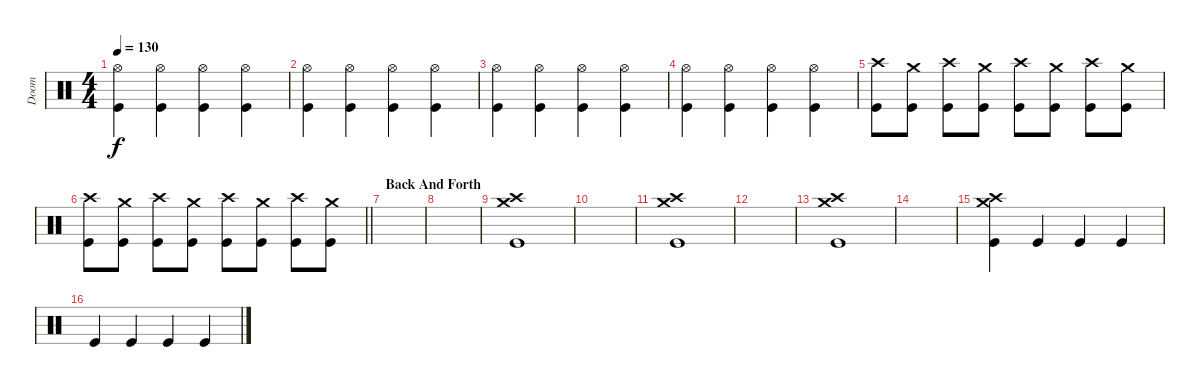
\track ("Doom" "Doom") {instrument percussion}
\staff {score}
\articulation defaults
\ts (4 4)
\tempo 130
\clef neutral
\ks c
("Hi-Hat (open)" "Kick (hit)").4{dy f} ("Hi-Hat (open)" "Kick (hit)").4 ("Hi-Hat (open)" "Kick (hit)").4 ("Hi-Hat (open)" "Kick (hit)").4 |
("Hi-Hat (open)" "Kick (hit)").4 ("Hi-Hat (open)" "Kick (hit)").4 ("Hi-Hat (open)" "Kick (hit)").4 ("Hi-Hat (open)" "Kick (hit)").4 |
("Hi-Hat (open)" "Kick (hit)").4 ("Hi-Hat (open)" "Kick (hit)").4 ("Hi-Hat (open)" "Kick (hit)").4 ("Hi-Hat (open)" "Kick (hit)").4 |
("Hi-Hat (open)" "Kick (hit)").4 ("Hi-Hat (open)" "Kick (hit)").4 ("Hi-Hat (open)" "Kick (hit)").4 ("Hi-Hat (open)" "Kick (hit)").4 |
("Crash high (hit)" "Kick (hit)").8 ("Crash medium (hit)" "Kick (hit)").8 ("Crash high (hit)" "Kick (hit)").8 ("Crash medium (hit)" "Kick (hit)").8 ("Crash high (hit)" "Kick (hit)").8 ("Crash medium (hit)" "Kick (hit)").8 ("Crash high (hit)" "Kick (hit)").8 ("Crash medium (hit)" "Kick (hit)").8 |
\barLineRight lightlight
("Crash high (hit)" "Kick (hit)").8 ("Crash medium (hit)" "Kick (hit)").8 ("Crash high (hit)" "Kick (hit)").8 ("Crash medium (hit)" "Kick (hit)").8 ("Crash high (hit)" "Kick (hit)").8 ("Crash medium (hit)" "Kick (hit)").8 ("Crash high (hit)" "Kick (hit)").8 ("Crash medium (hit)" "Kick (hit)").8 |
\section ("" "Back And Forth")
|
|
("Crash high (hit)" "Crash medium (hit)" "Kick (hit)").1 |
|
("Crash high (hit)" "Crash medium (hit)" "Kick (hit)").1 |
|
("Crash high (hit)" "Crash medium (hit)" "Kick (hit)").1 |
|
("Crash high (hit)" "Crash medium (hit)" "Kick (hit)").4 "Kick (hit)".4 "Kick (hit)".4 "Kick (hit)".4 |
"Kick (hit)".4 "Kick (hit)".4 "Kick (hit)".4 "Kick (hit)".4
